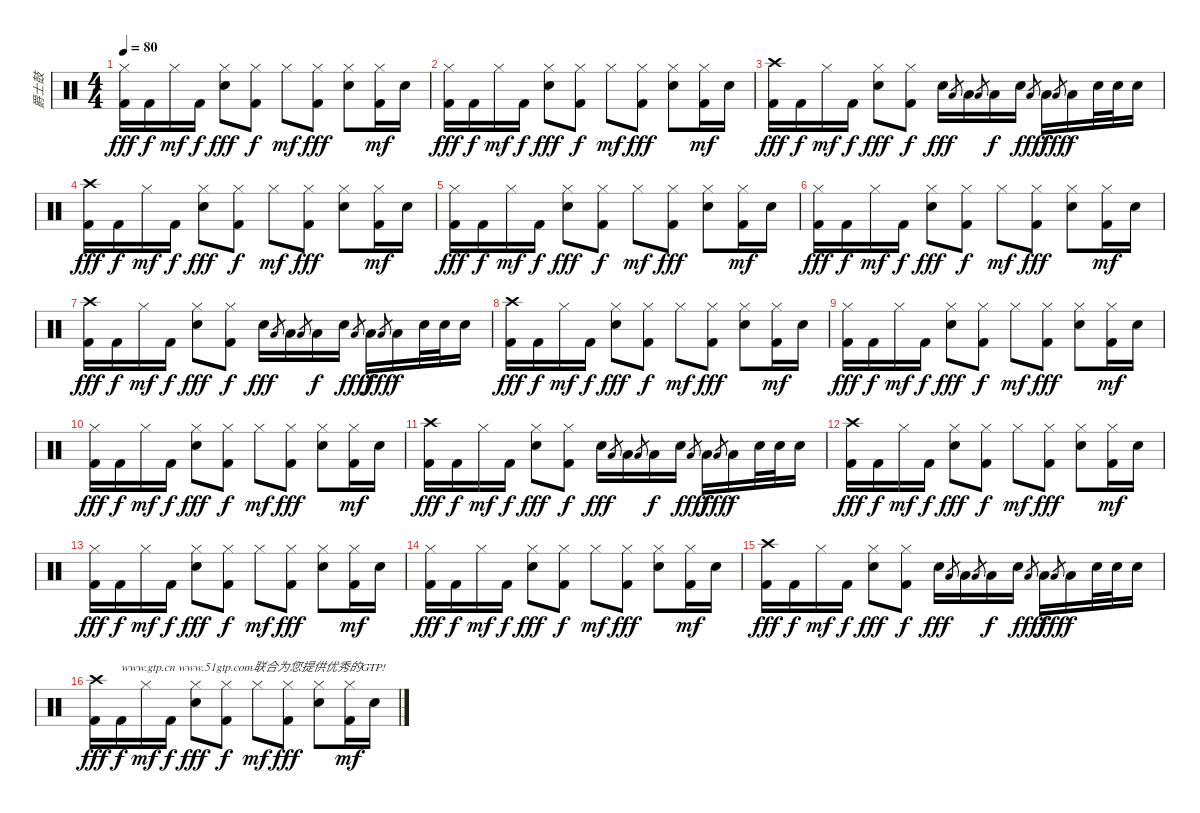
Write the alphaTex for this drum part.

\track ("爵士鼓" "爵士鼓") {instrument percussion}
\staff {score}
\articulation defaults
\ts (4 4)
\tempo 80
\clef neutral
\ks c
("Hi-Hat (closed)" "Kick (hit) 2").16{dy fff} "Kick (hit) 2".16{dy f} "Hi-Hat (closed)".16{dy mf} "Kick (hit) 2".16{dy f} ("Hi-Hat (closed)" "Electric Snare (hit)").8{dy fff} ("Hi-Hat (closed)" "Kick (hit) 2").8{dy f} "Hi-Hat (closed)".8{dy mf} ("Hi-Hat (closed)" "Kick (hit) 2").8{dy fff} ("Hi-Hat (closed)" "Electric Snare (hit)").8 ("Hi-Hat (closed)" "Kick (hit) 2").16{dy mf} "Electric Snare (hit)".16 |
("Hi-Hat (closed)" "Kick (hit) 2").16{dy fff} "Kick (hit) 2".16{dy f} "Hi-Hat (closed)".16{dy mf} "Kick (hit) 2".16{dy f} ("Hi-Hat (closed)" "Electric Snare (hit)").8{dy fff} ("Hi-Hat (closed)" "Kick (hit) 2").8{dy f} "Hi-Hat (closed)".8{dy mf} ("Hi-Hat (closed)" "Kick (hit) 2").8{dy fff} ("Hi-Hat (closed)" "Electric Snare (hit)").8 ("Hi-Hat (closed)" "Kick (hit) 2").16{dy mf} "Electric Snare (hit)".16 |
("Crash high (hit)" "Kick (hit) 2").16{dy fff} "Kick (hit) 2".16{dy f} "Hi-Hat (closed)".16{dy mf} "Kick (hit) 2".16{dy f} ("Hi-Hat (closed)" "Electric Snare (hit)").8{dy fff} ("Hi-Hat (closed)" "Kick (hit) 2").8{dy f} "Electric Snare (hit)".16{dy fff} "Low Tom (hit)".8{gr} "Low Tom (hit)".16 "Low Tom (hit)".8{gr} "Low Tom (hit)".16{dy f} "Electric Snare (hit)".16 "Low Tom (hit)".8{gr dy fff} "Low Tom (hit)".16{dy f} "Low Tom (hit)".8{gr dy fff} "Low Tom (hit)".16{dy f} "Electric Snare (hit)".32 "Electric Snare (hit)".32 "Electric Snare (hit)".16 |
("Crash high (hit)" "Kick (hit) 2").16{dy fff} "Kick (hit) 2".16{dy f} "Hi-Hat (closed)".16{dy mf} "Kick (hit) 2".16{dy f} ("Hi-Hat (closed)" "Electric Snare (hit)").8{dy fff} ("Hi-Hat (closed)" "Kick (hit) 2").8{dy f} "Hi-Hat (closed)".8{dy mf} ("Hi-Hat (closed)" "Kick (hit) 2").8{dy fff} ("Hi-Hat (closed)" "Electric Snare (hit)").8 ("Hi-Hat (closed)" "Kick (hit) 2").16{dy mf} "Electric Snare (hit)".16 |
("Hi-Hat (closed)" "Kick (hit) 2").16{dy fff} "Kick (hit) 2".16{dy f} "Hi-Hat (closed)".16{dy mf} "Kick (hit) 2".16{dy f} ("Hi-Hat (closed)" "Electric Snare (hit)").8{dy fff} ("Hi-Hat (closed)" "Kick (hit) 2").8{dy f} "Hi-Hat (closed)".8{dy mf} ("Hi-Hat (closed)" "Kick (hit) 2").8{dy fff} ("Hi-Hat (closed)" "Electric Snare (hit)").8 ("Hi-Hat (closed)" "Kick (hit) 2").16{dy mf} "Electric Snare (hit)".16 |
("Hi-Hat (closed)" "Kick (hit) 2").16{dy fff} "Kick (hit) 2".16{dy f} "Hi-Hat (closed)".16{dy mf} "Kick (hit) 2".16{dy f} ("Hi-Hat (closed)" "Electric Snare (hit)").8{dy fff} ("Hi-Hat (closed)" "Kick (hit) 2").8{dy f} "Hi-Hat (closed)".8{dy mf} ("Hi-Hat (closed)" "Kick (hit) 2").8{dy fff} ("Hi-Hat (closed)" "Electric Snare (hit)").8 ("Hi-Hat (closed)" "Kick (hit) 2").16{dy mf} "Electric Snare (hit)".16 |
("Crash high (hit)" "Kick (hit) 2").16{dy fff} "Kick (hit) 2".16{dy f} "Hi-Hat (closed)".16{dy mf} "Kick (hit) 2".16{dy f} ("Hi-Hat (closed)" "Electric Snare (hit)").8{dy fff} ("Hi-Hat (closed)" "Kick (hit) 2").8{dy f} "Electric Snare (hit)".16{dy fff} "Low Tom (hit)".8{gr} "Low Tom (hit)".16 "Low Tom (hit)".8{gr} "Low Tom (hit)".16{dy f} "Electric Snare (hit)".16 "Low Tom (hit)".8{gr dy fff} "Low Tom (hit)".16{dy f} "Low Tom (hit)".8{gr dy fff} "Low Tom (hit)".16{dy f} "Electric Snare (hit)".32 "Electric Snare (hit)".32 "Electric Snare (hit)".16 |
("Crash high (hit)" "Kick (hit) 2").16{dy fff} "Kick (hit) 2".16{dy f} "Hi-Hat (closed)".16{dy mf} "Kick (hit) 2".16{dy f} ("Hi-Hat (closed)" "Electric Snare (hit)").8{dy fff} ("Hi-Hat (closed)" "Kick (hit) 2").8{dy f} "Hi-Hat (closed)".8{dy mf} ("Hi-Hat (closed)" "Kick (hit) 2").8{dy fff} ("Hi-Hat (closed)" "Electric Snare (hit)").8 ("Hi-Hat (closed)" "Kick (hit) 2").16{dy mf} "Electric Snare (hit)".16 |
("Hi-Hat (closed)" "Kick (hit) 2").16{dy fff} "Kick (hit) 2".16{dy f} "Hi-Hat (closed)".16{dy mf} "Kick (hit) 2".16{dy f} ("Hi-Hat (closed)" "Electric Snare (hit)").8{dy fff} ("Hi-Hat (closed)" "Kick (hit) 2").8{dy f} "Hi-Hat (closed)".8{dy mf} ("Hi-Hat (closed)" "Kick (hit) 2").8{dy fff} ("Hi-Hat (closed)" "Electric Snare (hit)").8 ("Hi-Hat (closed)" "Kick (hit) 2").16{dy mf} "Electric Snare (hit)".16 |
("Hi-Hat (closed)" "Kick (hit) 2").16{dy fff} "Kick (hit) 2".16{dy f} "Hi-Hat (closed)".16{dy mf} "Kick (hit) 2".16{dy f} ("Hi-Hat (closed)" "Electric Snare (hit)").8{dy fff} ("Hi-Hat (closed)" "Kick (hit) 2").8{dy f} "Hi-Hat (closed)".8{dy mf} ("Hi-Hat (closed)" "Kick (hit) 2").8{dy fff} ("Hi-Hat (closed)" "Electric Snare (hit)").8 ("Hi-Hat (closed)" "Kick (hit) 2").16{dy mf} "Electric Snare (hit)".16 |
("Crash high (hit)" "Kick (hit) 2").16{dy fff} "Kick (hit) 2".16{dy f} "Hi-Hat (closed)".16{dy mf} "Kick (hit) 2".16{dy f} ("Hi-Hat (closed)" "Electric Snare (hit)").8{dy fff} ("Hi-Hat (closed)" "Kick (hit) 2").8{dy f} "Electric Snare (hit)".16{dy fff} "Low Tom (hit)".8{gr} "Low Tom (hit)".16 "Low Tom (hit)".8{gr} "Low Tom (hit)".16{dy f} "Electric Snare (hit)".16 "Low Tom (hit)".8{gr dy fff} "Low Tom (hit)".16{dy f} "Low Tom (hit)".8{gr dy fff} "Low Tom (hit)".16{dy f} "Electric Snare (hit)".32 "Electric Snare (hit)".32 "Electric Snare (hit)".16 |
("Crash high (hit)" "Kick (hit) 2").16{dy fff} "Kick (hit) 2".16{dy f} "Hi-Hat (closed)".16{dy mf} "Kick (hit) 2".16{dy f} ("Hi-Hat (closed)" "Electric Snare (hit)").8{dy fff} ("Hi-Hat (closed)" "Kick (hit) 2").8{dy f} "Hi-Hat (closed)".8{dy mf} ("Hi-Hat (closed)" "Kick (hit) 2").8{dy fff} ("Hi-Hat (closed)" "Electric Snare (hit)").8 ("Hi-Hat (closed)" "Kick (hit) 2").16{dy mf} "Electric Snare (hit)".16 |
("Hi-Hat (closed)" "Kick (hit) 2").16{dy fff} "Kick (hit) 2".16{dy f} "Hi-Hat (closed)".16{dy mf} "Kick (hit) 2".16{dy f} ("Hi-Hat (closed)" "Electric Snare (hit)").8{dy fff} ("Hi-Hat (closed)" "Kick (hit) 2").8{dy f} "Hi-Hat (closed)".8{dy mf} ("Hi-Hat (closed)" "Kick (hit) 2").8{dy fff} ("Hi-Hat (closed)" "Electric Snare (hit)").8 ("Hi-Hat (closed)" "Kick (hit) 2").16{dy mf} "Electric Snare (hit)".16 |
("Hi-Hat (closed)" "Kick (hit) 2").16{dy fff} "Kick (hit) 2".16{dy f} "Hi-Hat (closed)".16{dy mf} "Kick (hit) 2".16{dy f} ("Hi-Hat (closed)" "Electric Snare (hit)").8{dy fff} ("Hi-Hat (closed)" "Kick (hit) 2").8{dy f} "Hi-Hat (closed)".8{dy mf} ("Hi-Hat (closed)" "Kick (hit) 2").8{dy fff} ("Hi-Hat (closed)" "Electric Snare (hit)").8 ("Hi-Hat (closed)" "Kick (hit) 2").16{dy mf} "Electric Snare (hit)".16 |
("Crash high (hit)" "Kick (hit) 2").16{dy fff} "Kick (hit) 2".16{dy f} "Hi-Hat (closed)".16{dy mf} "Kick (hit) 2".16{dy f} ("Hi-Hat (closed)" "Electric Snare (hit)").8{dy fff} ("Hi-Hat (closed)" "Kick (hit) 2").8{dy f} "Electric Snare (hit)".16{dy fff} "Low Tom (hit)".8{gr} "Low Tom (hit)".16 "Low Tom (hit)".8{gr} "Low Tom (hit)".16{dy f} "Electric Snare (hit)".16 "Low Tom (hit)".8{gr dy fff} "Low Tom (hit)".16{dy f} "Low Tom (hit)".8{gr dy fff} "Low Tom (hit)".16{dy f} "Electric Snare (hit)".32 "Electric Snare (hit)".32 "Electric Snare (hit)".16 |
("Crash high (hit)" "Kick (hit) 2").16{dy fff} "Kick (hit) 2".16{txt "www.gtp.cn www.51gtp.com联合为您提供优秀的GTP!" dy f} "Hi-Hat (closed)".16{dy mf} "Kick (hit) 2".16{dy f} ("Hi-Hat (closed)" "Electric Snare (hit)").8{dy fff} ("Hi-Hat (closed)" "Kick (hit) 2").8{dy f} "Hi-Hat (closed)".8{dy mf} ("Hi-Hat (closed)" "Kick (hit) 2").8{dy fff} ("Hi-Hat (closed)" "Electric Snare (hit)").8 ("Hi-Hat (closed)" "Kick (hit) 2").16{dy mf} "Electric Snare (hit)".16
